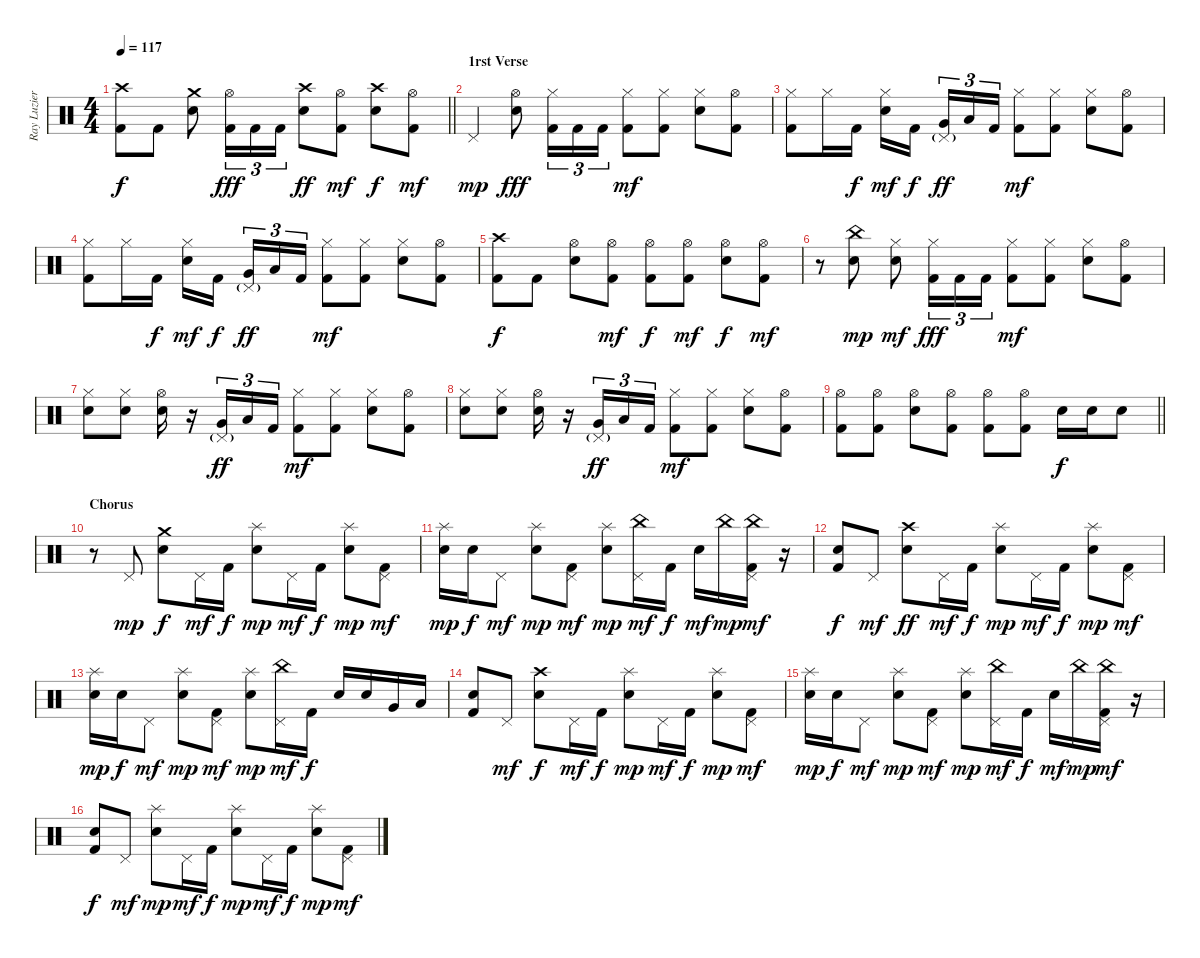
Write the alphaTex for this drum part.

\track ("Ray Luzier" "Ray Luzier") {instrument percussion}
\staff {score}
\articulation defaults
\ts (4 4)
\tempo 117
\clef neutral
\barLineRight lightlight
\ks c
("Crash high (hit)" "Kick (hit) 2").8{dy f} "Kick (hit) 2".8 ("Crash medium (hit)" "Snare (hit) 2").8 ("Hi-Hat (open)" "Kick (hit) 2").16{tu (3 2) dy fff} "Kick (hit) 2".16{tu (3 2)} "Kick (hit) 2".16{tu (3 2)} ("Crash high (hit)" "Snare (hit) 2").8{dy ff} ("Hi-Hat (open)" "Kick (hit) 2").8{dy mf} ("Crash high (hit)" "Snare (hit) 2").8{dy f} ("Hi-Hat (open)" "Kick (hit) 2").8{dy mf} |
\section ("" "1rst Verse")
"Pedal Hi-Hat (hit)".4{dy mp} ("Hi-Hat (open)" "Snare (hit) 2").8{dy fff} ("Hi-Hat (closed)" "Kick (hit) 2").16{tu (3 2)} "Kick (hit) 2".16{tu (3 2)} "Kick (hit) 2".16{tu (3 2)} ("Hi-Hat (closed)" "Kick (hit) 2").8{dy mf} ("Hi-Hat (closed)" "Kick (hit) 2").8 ("Hi-Hat (closed)" "Snare (hit) 2").8 ("Hi-Hat (open)" "Kick (hit) 2").8 |
("Hi-Hat (closed)" "Kick (hit) 2").8 "Hi-Hat (closed)".16 "Kick (hit) 2".16{dy f} ("Hi-Hat (closed)" "Snare (hit) 2").16{dy mf} "Kick (hit) 2".16{dy f beam splitsecondary} ("Pedal Hi-Hat (hit)"{g} "Very Low Tom (hit)").16{tu (3 2) dy ff} "Low Floor Tom (hit)".16{tu (3 2)} "Kick (hit) 2".16{tu (3 2)} ("Hi-Hat (closed)" "Kick (hit) 2").8{dy mf} ("Hi-Hat (closed)" "Kick (hit) 2").8 ("Hi-Hat (closed)" "Snare (hit) 2").8 ("Hi-Hat (open)" "Kick (hit) 2").8 |
("Hi-Hat (closed)" "Kick (hit) 2").8 "Hi-Hat (closed)".16 "Kick (hit) 2".16{dy f} ("Hi-Hat (closed)" "Snare (hit) 2").16{dy mf} "Kick (hit) 2".16{dy f beam splitsecondary} ("Pedal Hi-Hat (hit)"{g} "Very Low Tom (hit)").16{tu (3 2) dy ff} "Low Floor Tom (hit)".16{tu (3 2)} "Kick (hit) 2".16{tu (3 2)} ("Hi-Hat (closed)" "Kick (hit) 2").8{dy mf} ("Hi-Hat (closed)" "Kick (hit) 2").8 ("Hi-Hat (closed)" "Snare (hit) 2").8 ("Hi-Hat (open)" "Kick (hit) 2").8 |
("Crash high (hit)" "Kick (hit) 2").8{dy f} "Kick (hit) 2".8 ("Hi-Hat (open)" "Snare (hit) 2").8 ("Hi-Hat (open)" "Kick (hit) 2").8{dy mf} ("Hi-Hat (open)" "Kick (hit) 2").8{dy f} ("Hi-Hat (open)" "Kick (hit) 2").8{dy mf} ("Hi-Hat (open)" "Snare (hit) 2").8{dy f} ("Hi-Hat (open)" "Kick (hit) 2").8{dy mf} |
r.8 ("China (hit)" "Snare (hit) 2").8{dy mp} ("Hi-Hat (closed)" "Snare (hit) 2").8{dy mf} ("Hi-Hat (closed)" "Kick (hit) 2").16{tu (3 2) dy fff} "Kick (hit) 2".16{tu (3 2)} "Kick (hit) 2".16{tu (3 2)} ("Hi-Hat (closed)" "Kick (hit) 2").8{dy mf} ("Hi-Hat (closed)" "Kick (hit) 2").8 ("Hi-Hat (closed)" "Snare (hit) 2").8 ("Hi-Hat (open)" "Kick (hit) 2").8 |
("Hi-Hat (closed)" "Snare (hit) 2").8 ("Hi-Hat (closed)" "Snare (hit) 2").8 ("Hi-Hat (open)" "Snare (hit) 2").16 r.16 ("Pedal Hi-Hat (hit)"{g} "Very Low Tom (hit)").16{tu (3 2) dy ff} "Low Floor Tom (hit)".16{tu (3 2)} "Kick (hit) 2".16{tu (3 2)} ("Hi-Hat (closed)" "Kick (hit) 2").8{dy mf} ("Hi-Hat (closed)" "Kick (hit) 2").8 ("Hi-Hat (closed)" "Snare (hit) 2").8 ("Hi-Hat (open)" "Kick (hit) 2").8 |
("Hi-Hat (closed)" "Snare (hit) 2").8 ("Hi-Hat (closed)" "Snare (hit) 2").8 ("Hi-Hat (open)" "Snare (hit) 2").16 r.16 ("Pedal Hi-Hat (hit)"{g} "Very Low Tom (hit)").16{tu (3 2) dy ff} "Low Floor Tom (hit)".16{tu (3 2)} "Kick (hit) 2".16{tu (3 2)} ("Hi-Hat (closed)" "Kick (hit) 2").8{dy mf} ("Hi-Hat (closed)" "Kick (hit) 2").8 ("Hi-Hat (closed)" "Snare (hit) 2").8 ("Hi-Hat (open)" "Kick (hit) 2").8 |
\barLineRight lightlight
("Hi-Hat (open)" "Kick (hit) 2").8 ("Hi-Hat (open)" "Kick (hit) 2").8 ("Hi-Hat (open)" "Snare (hit) 2").8 ("Hi-Hat (open)" "Kick (hit) 2").8 ("Hi-Hat (open)" "Kick (hit) 2").8 ("Hi-Hat (open)" "Kick (hit) 2").8 "Snare (hit) 2".16{dy f} "Snare (hit) 2".16 "Snare (hit) 2".8 |
\section ("" "Chorus")
r.8 "Pedal Hi-Hat (hit)".8{dy mp} ("Crash medium (hit)" "Snare (hit) 2").8{dy f} "Pedal Hi-Hat (hit)".16{dy mf} "Kick (hit) 2".16{dy f} ("Splash (hit)" "Snare (hit) 2").8{dy mp} "Pedal Hi-Hat (hit)".16{dy mf} "Kick (hit) 2".16{dy f} ("Splash (hit)" "Snare (hit) 2").8{dy mp} ("Pedal Hi-Hat (hit)" "Kick (hit) 2").8{dy mf} |
("Splash (hit)" "Snare (hit) 2").16{dy mp} "Snare (hit) 2".16{dy f} "Pedal Hi-Hat (hit)".8{dy mf} ("Splash (hit)" "Snare (hit) 2").8{dy mp} ("Pedal Hi-Hat (hit)" "Kick (hit) 2").8{dy mf} ("Splash (hit)" "Snare (hit) 2").8{dy mp} ("China (hit)" "Pedal Hi-Hat (hit)").16{dy mf} "Kick (hit) 2".16{dy f} "Snare (hit) 2".16{dy mf} "China (hit)".16{dy mp} ("China (hit)" "Pedal Hi-Hat (hit)" "Kick (hit) 2").16{dy mf} r.16 |
("Snare (hit) 2" "Kick (hit) 2").8{dy f} "Pedal Hi-Hat (hit)".8{dy mf} ("Crash high (hit)" "Snare (hit) 2").8{dy ff} "Pedal Hi-Hat (hit)".16{dy mf} "Kick (hit) 2".16{dy f} ("Splash (hit)" "Snare (hit) 2").8{dy mp} "Pedal Hi-Hat (hit)".16{dy mf} "Kick (hit) 2".16{dy f} ("Splash (hit)" "Snare (hit) 2").8{dy mp} ("Pedal Hi-Hat (hit)" "Kick (hit) 2").8{dy mf} |
("Splash (hit)" "Snare (hit) 2").16{dy mp} "Snare (hit) 2".16{dy f} "Pedal Hi-Hat (hit)".8{dy mf} ("Splash (hit)" "Snare (hit) 2").8{dy mp} ("Pedal Hi-Hat (hit)" "Kick (hit) 2").8{dy mf} ("Splash (hit)" "Snare (hit) 2").8{dy mp} ("China (hit)" "Pedal Hi-Hat (hit)").16{dy mf} "Kick (hit) 2".16{dy f} "Snare (hit) 2".16 "Snare (hit) 2".16 "Very Low Tom (hit)".16 "Low Floor Tom (hit)".16 |
("Snare (hit) 2" "Kick (hit) 2").8 "Pedal Hi-Hat (hit)".8{dy mf} ("Crash high (hit)" "Snare (hit) 2").8{dy f} "Pedal Hi-Hat (hit)".16{dy mf} "Kick (hit) 2".16{dy f} ("Splash (hit)" "Snare (hit) 2").8{dy mp} "Pedal Hi-Hat (hit)".16{dy mf} "Kick (hit) 2".16{dy f} ("Splash (hit)" "Snare (hit) 2").8{dy mp} ("Pedal Hi-Hat (hit)" "Kick (hit) 2").8{dy mf} |
("Splash (hit)" "Snare (hit) 2").16{dy mp} "Snare (hit) 2".16{dy f} "Pedal Hi-Hat (hit)".8{dy mf} ("Splash (hit)" "Snare (hit) 2").8{dy mp} ("Pedal Hi-Hat (hit)" "Kick (hit) 2").8{dy mf} ("Splash (hit)" "Snare (hit) 2").8{dy mp} ("China (hit)" "Pedal Hi-Hat (hit)").16{dy mf} "Kick (hit) 2".16{dy f} "Snare (hit) 2".16{dy mf} "China (hit)".16{dy mp} ("China (hit)" "Pedal Hi-Hat (hit)" "Kick (hit) 2").16{dy mf} r.16 |
("Snare (hit) 2" "Kick (hit) 2").8{dy f} "Pedal Hi-Hat (hit)".8{dy mf} ("Splash (hit)" "Snare (hit) 2").8{dy mp} "Pedal Hi-Hat (hit)".16{dy mf} "Kick (hit) 2".16{dy f} ("Splash (hit)" "Snare (hit) 2").8{dy mp} "Pedal Hi-Hat (hit)".16{dy mf} "Kick (hit) 2".16{dy f} ("Splash (hit)" "Snare (hit) 2").8{dy mp} ("Pedal Hi-Hat (hit)" "Kick (hit) 2").8{dy mf}
